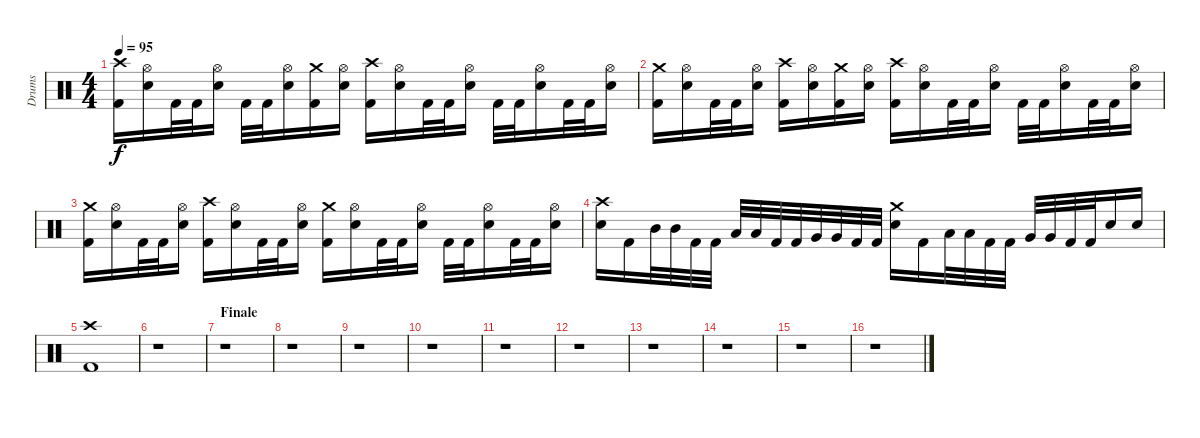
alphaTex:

\track ("Drums" "Drums") {instrument percussion}
\staff {score}
\articulation defaults
\ts (4 4)
\tempo 95
\clef neutral
\ks c
("Crash high (hit)" "Kick (hit) 2").16{dy f} ("Hi-Hat (open)" "Snare (hit) 2").16 "Kick (hit) 2".32 "Kick (hit) 2".32 ("Hi-Hat (open)" "Snare (hit) 2").16 "Kick (hit) 2".32 "Kick (hit) 2".32 ("Hi-Hat (open)" "Snare (hit) 2").16 ("Crash medium (hit)" "Kick (hit) 2").16 ("Hi-Hat (open)" "Snare (hit) 2").16 ("Crash high (hit)" "Kick (hit) 2").16 ("Hi-Hat (open)" "Snare (hit) 2").16 "Kick (hit) 2".32 "Kick (hit) 2".32 ("Hi-Hat (open)" "Snare (hit) 2").16 "Kick (hit) 2".32 "Kick (hit) 2".32 ("Hi-Hat (open)" "Snare (hit) 2").16 "Kick (hit) 2".32 "Kick (hit) 2".32 ("Hi-Hat (open)" "Snare (hit) 2").16 |
("Crash medium (hit)" "Kick (hit) 2").16 ("Hi-Hat (open)" "Snare (hit) 2").16 "Kick (hit) 2".32 "Kick (hit) 2".32 ("Hi-Hat (open)" "Snare (hit) 2").16 ("Crash high (hit)" "Kick (hit) 2").16 ("Hi-Hat (open)" "Snare (hit) 2").16 ("Crash medium (hit)" "Kick (hit) 2").16 ("Hi-Hat (open)" "Snare (hit) 2").16 ("Crash high (hit)" "Kick (hit) 2").16 ("Hi-Hat (open)" "Snare (hit) 2").16 "Kick (hit) 2".32 "Kick (hit) 2".32 ("Hi-Hat (open)" "Snare (hit) 2").16 "Kick (hit) 2".32 "Kick (hit) 2".32 ("Hi-Hat (open)" "Snare (hit) 2").16 "Kick (hit) 2".32 "Kick (hit) 2".32 ("Hi-Hat (open)" "Snare (hit) 2").16 |
("Crash medium (hit)" "Kick (hit) 2").16 ("Hi-Hat (open)" "Snare (hit) 2").16 "Kick (hit) 2".32 "Kick (hit) 2".32 ("Hi-Hat (open)" "Snare (hit) 2").16 ("Crash high (hit)" "Kick (hit) 2").16 ("Hi-Hat (open)" "Snare (hit) 2").16 "Kick (hit) 2".32 "Kick (hit) 2".32 ("Hi-Hat (open)" "Snare (hit) 2").16 ("Crash medium (hit)" "Kick (hit) 2").16 ("Hi-Hat (open)" "Snare (hit) 2").16 "Kick (hit) 2".32 "Kick (hit) 2".32 ("Hi-Hat (open)" "Snare (hit) 2").16 "Kick (hit) 2".32 "Kick (hit) 2".32 ("Hi-Hat (open)" "Snare (hit) 2").16 "Kick (hit) 2".32 "Kick (hit) 2".32 ("Hi-Hat (open)" "Snare (hit) 2").16 |
("Crash high (hit)" "Snare (hit) 2").16 "Kick (hit) 2".16 "Mid Tom (hit)".32 "Mid Tom (hit)".32 "Kick (hit) 2".32 "Kick (hit) 2".32 "Low Tom (hit)".32 "Low Tom (hit)".32 "Kick (hit) 2".32 "Kick (hit) 2".32 "Very Low Tom (hit)".32 "Very Low Tom (hit)".32 "Kick (hit) 2".32 "Kick (hit) 2".32 ("Crash medium (hit)" "Snare (hit) 2").16 "Kick (hit) 2".16 "Low Tom (hit)".32 "Low Tom (hit)".32 "Kick (hit) 2".32 "Kick (hit) 2".32 "Very Low Tom (hit)".32 "Very Low Tom (hit)".32 "Kick (hit) 2".32 "Kick (hit) 2".32 "Snare (hit) 2".16 "Snare (hit) 2".16 |
("Crash high (hit)" "Kick (hit) 2").1 |
r.1 |
\section ("" "Finale")
r.1 |
r.1 |
r.1 |
r.1 |
r.1 |
r.1 |
r.1 |
r.1 |
r.1 |
r.1
